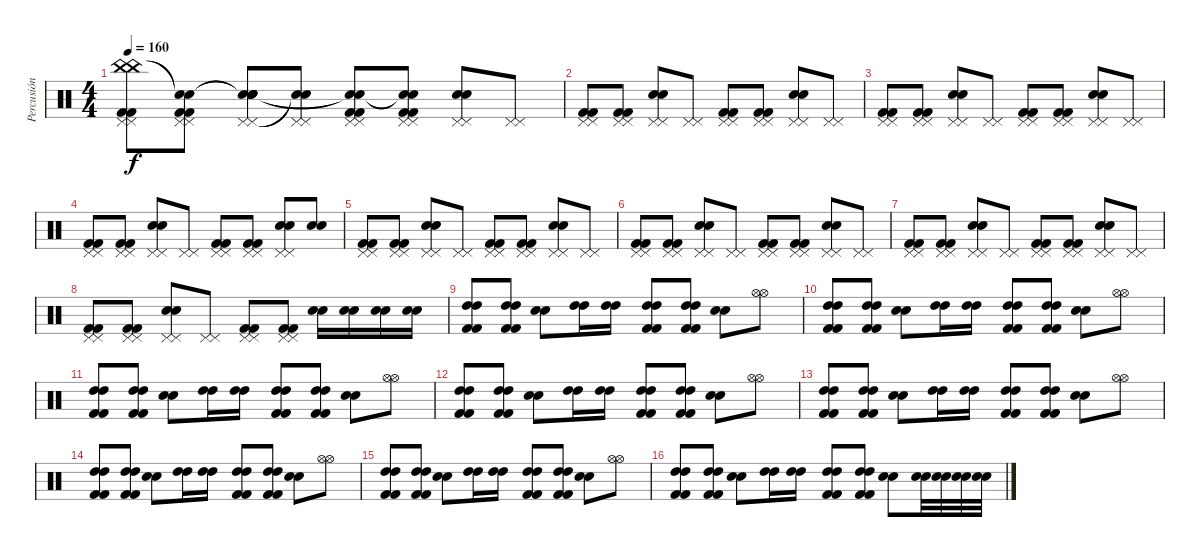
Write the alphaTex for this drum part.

\track ("Percusión" "Percusión") {instrument percussion}
\staff {score}
\articulation defaults
\ts (4 4)
\tempo 160
\clef neutral
\ks c
("Kick (hit) 2" "Kick (hit) 2" "Pedal Hi-Hat (hit)" "Pedal Hi-Hat (hit)" "China (hit)" "China (hit)").8{dy f} ("Kick (hit) 2" "Kick (hit) 2" "Pedal Hi-Hat (hit)" "Pedal Hi-Hat (hit)" "Snare (hit)"{t} "Snare (hit)"{t}).8 ("Snare (hit) 2" "Snare (hit) 2" "Pedal Hi-Hat (hit)" "Pedal Hi-Hat (hit)" "Snare (hit)"{t} "Snare (hit)"{t}).8 ("Pedal Hi-Hat (hit)" "Pedal Hi-Hat (hit)" "Snare (hit)"{t} "Snare (hit)"{t}).8 ("Kick (hit) 2" "Kick (hit) 2" "Pedal Hi-Hat (hit)" "Pedal Hi-Hat (hit)" "Snare (hit)"{t} "Snare (hit)"{t}).8 ("Kick (hit) 2" "Kick (hit) 2" "Pedal Hi-Hat (hit)" "Pedal Hi-Hat (hit)" "Snare (hit)"{t} "Snare (hit)"{t}).8 ("Snare (hit) 2" "Snare (hit) 2" "Pedal Hi-Hat (hit)" "Pedal Hi-Hat (hit)").8 ("Pedal Hi-Hat (hit)" "Pedal Hi-Hat (hit)").8 |
("Kick (hit) 2" "Kick (hit) 2" "Pedal Hi-Hat (hit)" "Pedal Hi-Hat (hit)").8 ("Kick (hit) 2" "Kick (hit) 2" "Pedal Hi-Hat (hit)" "Pedal Hi-Hat (hit)").8 ("Snare (hit) 2" "Snare (hit) 2" "Pedal Hi-Hat (hit)" "Pedal Hi-Hat (hit)").8 ("Pedal Hi-Hat (hit)" "Pedal Hi-Hat (hit)").8 ("Kick (hit) 2" "Kick (hit) 2" "Pedal Hi-Hat (hit)" "Pedal Hi-Hat (hit)").8 ("Kick (hit) 2" "Kick (hit) 2" "Pedal Hi-Hat (hit)" "Pedal Hi-Hat (hit)").8 ("Snare (hit) 2" "Snare (hit) 2" "Pedal Hi-Hat (hit)" "Pedal Hi-Hat (hit)").8 ("Pedal Hi-Hat (hit)" "Pedal Hi-Hat (hit)").8 |
("Kick (hit) 2" "Kick (hit) 2" "Pedal Hi-Hat (hit)" "Pedal Hi-Hat (hit)").8 ("Kick (hit) 2" "Kick (hit) 2" "Pedal Hi-Hat (hit)" "Pedal Hi-Hat (hit)").8 ("Snare (hit) 2" "Snare (hit) 2" "Pedal Hi-Hat (hit)" "Pedal Hi-Hat (hit)").8 ("Pedal Hi-Hat (hit)" "Pedal Hi-Hat (hit)").8 ("Kick (hit) 2" "Kick (hit) 2" "Pedal Hi-Hat (hit)" "Pedal Hi-Hat (hit)").8 ("Kick (hit) 2" "Kick (hit) 2" "Pedal Hi-Hat (hit)" "Pedal Hi-Hat (hit)").8 ("Snare (hit) 2" "Snare (hit) 2" "Pedal Hi-Hat (hit)" "Pedal Hi-Hat (hit)").8 ("Pedal Hi-Hat (hit)" "Pedal Hi-Hat (hit)").8 |
("Kick (hit) 2" "Kick (hit) 2" "Pedal Hi-Hat (hit)" "Pedal Hi-Hat (hit)").8 ("Kick (hit) 2" "Kick (hit) 2" "Pedal Hi-Hat (hit)" "Pedal Hi-Hat (hit)").8 ("Snare (hit) 2" "Snare (hit) 2" "Pedal Hi-Hat (hit)" "Pedal Hi-Hat (hit)").8 ("Pedal Hi-Hat (hit)" "Pedal Hi-Hat (hit)").8 ("Kick (hit) 2" "Kick (hit) 2" "Pedal Hi-Hat (hit)" "Pedal Hi-Hat (hit)").8 ("Kick (hit) 2" "Kick (hit) 2" "Pedal Hi-Hat (hit)" "Pedal Hi-Hat (hit)").8 ("Snare (hit) 2" "Snare (hit) 2" "Pedal Hi-Hat (hit)" "Pedal Hi-Hat (hit)").8 ("Snare (hit) 2" "Snare (hit) 2").8 |
("Kick (hit) 2" "Kick (hit) 2" "Pedal Hi-Hat (hit)" "Pedal Hi-Hat (hit)").8 ("Kick (hit) 2" "Kick (hit) 2" "Pedal Hi-Hat (hit)" "Pedal Hi-Hat (hit)").8 ("Snare (hit) 2" "Snare (hit) 2" "Pedal Hi-Hat (hit)" "Pedal Hi-Hat (hit)").8 ("Pedal Hi-Hat (hit)" "Pedal Hi-Hat (hit)").8 ("Kick (hit) 2" "Kick (hit) 2" "Pedal Hi-Hat (hit)" "Pedal Hi-Hat (hit)").8 ("Kick (hit) 2" "Kick (hit) 2" "Pedal Hi-Hat (hit)" "Pedal Hi-Hat (hit)").8 ("Snare (hit) 2" "Snare (hit) 2" "Pedal Hi-Hat (hit)" "Pedal Hi-Hat (hit)").8 ("Pedal Hi-Hat (hit)" "Pedal Hi-Hat (hit)").8 |
("Kick (hit) 2" "Kick (hit) 2" "Pedal Hi-Hat (hit)" "Pedal Hi-Hat (hit)").8 ("Kick (hit) 2" "Kick (hit) 2" "Pedal Hi-Hat (hit)" "Pedal Hi-Hat (hit)").8 ("Snare (hit) 2" "Snare (hit) 2" "Pedal Hi-Hat (hit)" "Pedal Hi-Hat (hit)").8 ("Pedal Hi-Hat (hit)" "Pedal Hi-Hat (hit)").8 ("Kick (hit) 2" "Kick (hit) 2" "Pedal Hi-Hat (hit)" "Pedal Hi-Hat (hit)").8 ("Kick (hit) 2" "Kick (hit) 2" "Pedal Hi-Hat (hit)" "Pedal Hi-Hat (hit)").8 ("Snare (hit) 2" "Snare (hit) 2" "Pedal Hi-Hat (hit)" "Pedal Hi-Hat (hit)").8 ("Pedal Hi-Hat (hit)" "Pedal Hi-Hat (hit)").8 |
("Kick (hit) 2" "Kick (hit) 2" "Pedal Hi-Hat (hit)" "Pedal Hi-Hat (hit)").8 ("Kick (hit) 2" "Kick (hit) 2" "Pedal Hi-Hat (hit)" "Pedal Hi-Hat (hit)").8 ("Snare (hit) 2" "Snare (hit) 2" "Pedal Hi-Hat (hit)" "Pedal Hi-Hat (hit)").8 ("Pedal Hi-Hat (hit)" "Pedal Hi-Hat (hit)").8 ("Kick (hit) 2" "Kick (hit) 2" "Pedal Hi-Hat (hit)" "Pedal Hi-Hat (hit)").8 ("Kick (hit) 2" "Kick (hit) 2" "Pedal Hi-Hat (hit)" "Pedal Hi-Hat (hit)").8 ("Snare (hit) 2" "Snare (hit) 2" "Pedal Hi-Hat (hit)" "Pedal Hi-Hat (hit)").8 ("Pedal Hi-Hat (hit)" "Pedal Hi-Hat (hit)").8 |
("Kick (hit) 2" "Kick (hit) 2" "Pedal Hi-Hat (hit)" "Pedal Hi-Hat (hit)").8 ("Kick (hit) 2" "Kick (hit) 2" "Pedal Hi-Hat (hit)" "Pedal Hi-Hat (hit)").8 ("Snare (hit) 2" "Snare (hit) 2" "Pedal Hi-Hat (hit)" "Pedal Hi-Hat (hit)").8 ("Pedal Hi-Hat (hit)" "Pedal Hi-Hat (hit)").8 ("Kick (hit) 2" "Kick (hit) 2" "Pedal Hi-Hat (hit)" "Pedal Hi-Hat (hit)").8 ("Kick (hit) 2" "Kick (hit) 2" "Pedal Hi-Hat (hit)" "Pedal Hi-Hat (hit)").8 ("Snare (hit) 2" "Snare (hit) 2").16 ("Snare (hit) 2" "Snare (hit) 2").16 ("Snare (hit) 2" "Snare (hit) 2").16 ("Snare (hit) 2" "Snare (hit) 2").16 |
("Kick (hit) 2" "Kick (hit) 2" "High Tom (hit)" "High Tom (hit)").8 ("Kick (hit) 2" "Kick (hit) 2" "High Tom (hit)" "High Tom (hit)").8 ("Snare (hit) 2" "Snare (hit) 2").8 ("High Tom (hit)" "High Tom (hit)").16 ("High Tom (hit)" "High Tom (hit)").16 ("Kick (hit) 2" "Kick (hit) 2" "High Tom (hit)" "High Tom (hit)").8 ("Kick (hit) 2" "Kick (hit) 2" "High Tom (hit)" "High Tom (hit)").8 ("Snare (hit) 2" "Snare (hit) 2").8 ("Hi-Hat (open)" "Hi-Hat (open)").8 |
("Kick (hit) 2" "Kick (hit) 2" "High Tom (hit)" "High Tom (hit)").8 ("Kick (hit) 2" "Kick (hit) 2" "High Tom (hit)" "High Tom (hit)").8 ("Snare (hit) 2" "Snare (hit) 2").8 ("High Tom (hit)" "High Tom (hit)").16 ("High Tom (hit)" "High Tom (hit)").16 ("Kick (hit) 2" "Kick (hit) 2" "High Tom (hit)" "High Tom (hit)").8 ("Kick (hit) 2" "Kick (hit) 2" "High Tom (hit)" "High Tom (hit)").8 ("Snare (hit) 2" "Snare (hit) 2").8 ("Hi-Hat (open)" "Hi-Hat (open)").8 |
("Kick (hit) 2" "Kick (hit) 2" "High Tom (hit)" "High Tom (hit)").8 ("Kick (hit) 2" "Kick (hit) 2" "High Tom (hit)" "High Tom (hit)").8 ("Snare (hit) 2" "Snare (hit) 2").8 ("High Tom (hit)" "High Tom (hit)").16 ("High Tom (hit)" "High Tom (hit)").16 ("Kick (hit) 2" "Kick (hit) 2" "High Tom (hit)" "High Tom (hit)").8 ("Kick (hit) 2" "Kick (hit) 2" "High Tom (hit)" "High Tom (hit)").8 ("Snare (hit) 2" "Snare (hit) 2").8 ("Hi-Hat (open)" "Hi-Hat (open)").8 |
("Kick (hit) 2" "Kick (hit) 2" "High Tom (hit)" "High Tom (hit)").8 ("Kick (hit) 2" "Kick (hit) 2" "High Tom (hit)" "High Tom (hit)").8 ("Snare (hit) 2" "Snare (hit) 2").8 ("High Tom (hit)" "High Tom (hit)").16 ("High Tom (hit)" "High Tom (hit)").16 ("Kick (hit) 2" "Kick (hit) 2" "High Tom (hit)" "High Tom (hit)").8 ("Kick (hit) 2" "Kick (hit) 2" "High Tom (hit)" "High Tom (hit)").8 ("Snare (hit) 2" "Snare (hit) 2").8 ("Hi-Hat (open)" "Hi-Hat (open)").8 |
("Kick (hit) 2" "Kick (hit) 2" "High Tom (hit)" "High Tom (hit)").8 ("Kick (hit) 2" "Kick (hit) 2" "High Tom (hit)" "High Tom (hit)").8 ("Snare (hit) 2" "Snare (hit) 2").8 ("High Tom (hit)" "High Tom (hit)").16 ("High Tom (hit)" "High Tom (hit)").16 ("Kick (hit) 2" "Kick (hit) 2" "High Tom (hit)" "High Tom (hit)").8 ("Kick (hit) 2" "Kick (hit) 2" "High Tom (hit)" "High Tom (hit)").8 ("Snare (hit) 2" "Snare (hit) 2").8 ("Hi-Hat (open)" "Hi-Hat (open)").8 |
("Kick (hit) 2" "Kick (hit) 2" "High Tom (hit)" "High Tom (hit)").8 ("Kick (hit) 2" "Kick (hit) 2" "High Tom (hit)" "High Tom (hit)").8 ("Snare (hit) 2" "Snare (hit) 2").8 ("High Tom (hit)" "High Tom (hit)").16 ("High Tom (hit)" "High Tom (hit)").16 ("Kick (hit) 2" "Kick (hit) 2" "High Tom (hit)" "High Tom (hit)").8 ("Kick (hit) 2" "Kick (hit) 2" "High Tom (hit)" "High Tom (hit)").8 ("Snare (hit) 2" "Snare (hit) 2").8 ("Hi-Hat (open)" "Hi-Hat (open)").8 |
("Kick (hit) 2" "Kick (hit) 2" "High Tom (hit)" "High Tom (hit)").8 ("Kick (hit) 2" "Kick (hit) 2" "High Tom (hit)" "High Tom (hit)").8 ("Snare (hit) 2" "Snare (hit) 2").8 ("High Tom (hit)" "High Tom (hit)").16 ("High Tom (hit)" "High Tom (hit)").16 ("Kick (hit) 2" "Kick (hit) 2" "High Tom (hit)" "High Tom (hit)").8 ("Kick (hit) 2" "Kick (hit) 2" "High Tom (hit)" "High Tom (hit)").8 ("Snare (hit) 2" "Snare (hit) 2").8 ("Hi-Hat (open)" "Hi-Hat (open)").8 |
("Kick (hit) 2" "Kick (hit) 2" "High Tom (hit)" "High Tom (hit)").8 ("Kick (hit) 2" "Kick (hit) 2" "High Tom (hit)" "High Tom (hit)").8 ("Snare (hit) 2" "Snare (hit) 2").8 ("High Tom (hit)" "High Tom (hit)").16 ("High Tom (hit)" "High Tom (hit)").16 ("Kick (hit) 2" "Kick (hit) 2" "High Tom (hit)" "High Tom (hit)").8 ("Kick (hit) 2" "Kick (hit) 2" "High Tom (hit)" "High Tom (hit)").8 ("Snare (hit) 2" "Snare (hit) 2").8 ("Snare (hit) 2" "Snare (hit) 2").32 ("Snare (hit) 2" "Snare (hit) 2").32 ("Snare (hit) 2" "Snare (hit) 2").32 ("Snare (hit) 2" "Snare (hit) 2").32
